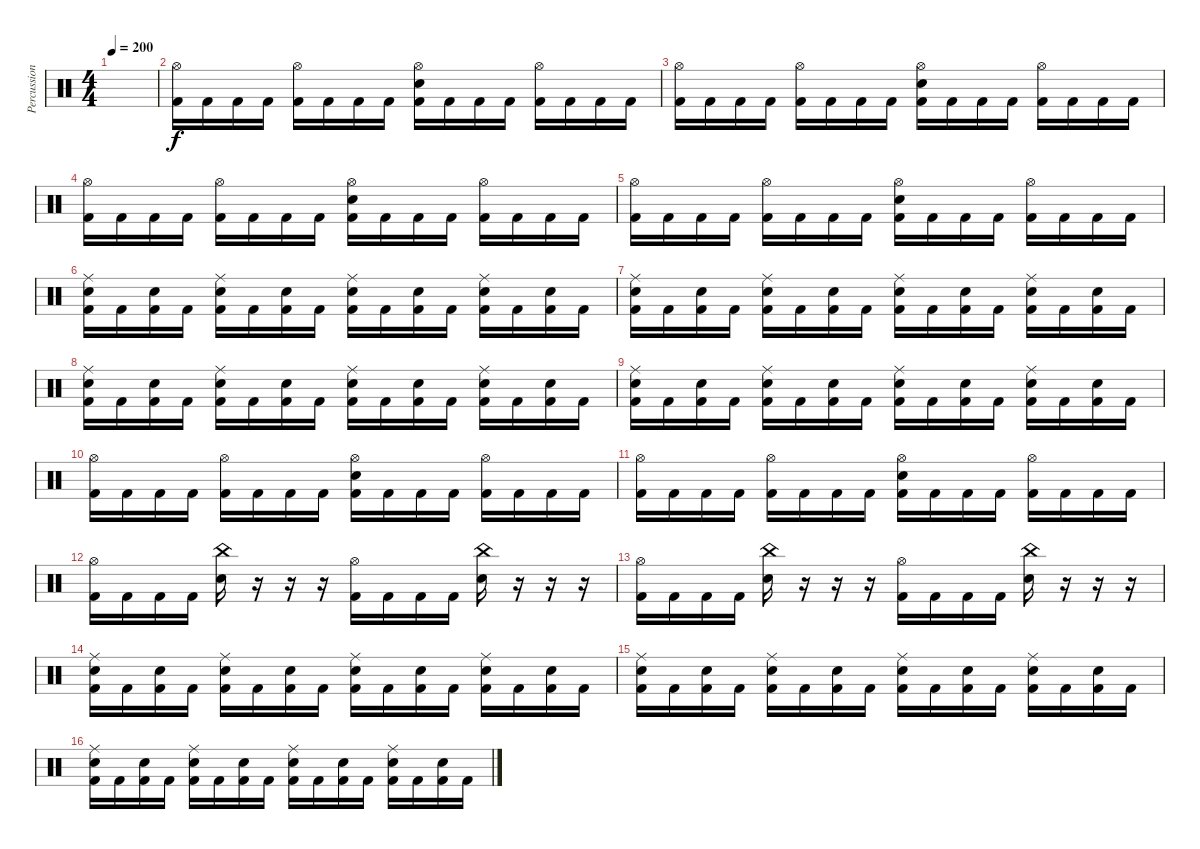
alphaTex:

\track ("Percussions" "Percussion") {instrument percussion}
\staff {score}
\articulation defaults
\ts (4 4)
\tempo 200
\clef neutral
\ks c
|
("Hi-Hat (open)" "Kick (hit) 2").16 "Kick (hit) 2".16 "Kick (hit) 2".16 "Kick (hit) 2".16 ("Hi-Hat (open)" "Kick (hit) 2").16 "Kick (hit) 2".16 "Kick (hit) 2".16 "Kick (hit) 2".16 ("Hi-Hat (open)" "Snare (hit) 2" "Kick (hit) 2").16 "Kick (hit) 2".16 "Kick (hit) 2".16 "Kick (hit) 2".16 ("Hi-Hat (open)" "Kick (hit) 2").16 "Kick (hit) 2".16 "Kick (hit) 2".16 "Kick (hit) 2".16 |
("Hi-Hat (open)" "Kick (hit) 2").16 "Kick (hit) 2".16 "Kick (hit) 2".16 "Kick (hit) 2".16 ("Hi-Hat (open)" "Kick (hit) 2").16 "Kick (hit) 2".16 "Kick (hit) 2".16 "Kick (hit) 2".16 ("Hi-Hat (open)" "Snare (hit) 2" "Kick (hit) 2").16 "Kick (hit) 2".16 "Kick (hit) 2".16 "Kick (hit) 2".16 ("Hi-Hat (open)" "Kick (hit) 2").16 "Kick (hit) 2".16 "Kick (hit) 2".16 "Kick (hit) 2".16 |
("Hi-Hat (open)" "Kick (hit) 2").16 "Kick (hit) 2".16 "Kick (hit) 2".16 "Kick (hit) 2".16 ("Hi-Hat (open)" "Kick (hit) 2").16 "Kick (hit) 2".16 "Kick (hit) 2".16 "Kick (hit) 2".16 ("Hi-Hat (open)" "Snare (hit) 2" "Kick (hit) 2").16 "Kick (hit) 2".16 "Kick (hit) 2".16 "Kick (hit) 2".16 ("Hi-Hat (open)" "Kick (hit) 2").16 "Kick (hit) 2".16 "Kick (hit) 2".16 "Kick (hit) 2".16 |
("Hi-Hat (open)" "Kick (hit) 2").16 "Kick (hit) 2".16 "Kick (hit) 2".16 "Kick (hit) 2".16 ("Hi-Hat (open)" "Kick (hit) 2").16 "Kick (hit) 2".16 "Kick (hit) 2".16 "Kick (hit) 2".16 ("Hi-Hat (open)" "Snare (hit) 2" "Kick (hit) 2").16 "Kick (hit) 2".16 "Kick (hit) 2".16 "Kick (hit) 2".16 ("Hi-Hat (open)" "Kick (hit) 2").16 "Kick (hit) 2".16 "Kick (hit) 2".16 "Kick (hit) 2".16 |
("Ride (middle)" "Snare (hit) 2" "Kick (hit) 2").16 "Kick (hit) 2".16 ("Snare (hit) 2" "Kick (hit) 2").16 "Kick (hit) 2".16 ("Ride (middle)" "Snare (hit) 2" "Kick (hit) 2").16 "Kick (hit) 2".16 ("Snare (hit) 2" "Kick (hit) 2").16 "Kick (hit) 2".16 ("Ride (middle)" "Snare (hit) 2" "Kick (hit) 2").16 "Kick (hit) 2".16 ("Snare (hit) 2" "Kick (hit) 2").16 "Kick (hit) 2".16 ("Ride (middle)" "Snare (hit) 2" "Kick (hit) 2").16 "Kick (hit) 2".16 ("Snare (hit) 2" "Kick (hit) 2").16 "Kick (hit) 2".16 |
("Ride (middle)" "Snare (hit) 2" "Kick (hit) 2").16 "Kick (hit) 2".16 ("Snare (hit) 2" "Kick (hit) 2").16 "Kick (hit) 2".16 ("Ride (middle)" "Snare (hit) 2" "Kick (hit) 2").16 "Kick (hit) 2".16 ("Snare (hit) 2" "Kick (hit) 2").16 "Kick (hit) 2".16 ("Ride (middle)" "Snare (hit) 2" "Kick (hit) 2").16 "Kick (hit) 2".16 ("Snare (hit) 2" "Kick (hit) 2").16 "Kick (hit) 2".16 ("Ride (middle)" "Snare (hit) 2" "Kick (hit) 2").16 "Kick (hit) 2".16 ("Snare (hit) 2" "Kick (hit) 2").16 "Kick (hit) 2".16 |
("Ride (middle)" "Snare (hit) 2" "Kick (hit) 2").16 "Kick (hit) 2".16 ("Snare (hit) 2" "Kick (hit) 2").16 "Kick (hit) 2".16 ("Ride (middle)" "Snare (hit) 2" "Kick (hit) 2").16 "Kick (hit) 2".16 ("Snare (hit) 2" "Kick (hit) 2").16 "Kick (hit) 2".16 ("Ride (middle)" "Snare (hit) 2" "Kick (hit) 2").16 "Kick (hit) 2".16 ("Snare (hit) 2" "Kick (hit) 2").16 "Kick (hit) 2".16 ("Ride (middle)" "Snare (hit) 2" "Kick (hit) 2").16 "Kick (hit) 2".16 ("Snare (hit) 2" "Kick (hit) 2").16 "Kick (hit) 2".16 |
("Ride (middle)" "Snare (hit) 2" "Kick (hit) 2").16 "Kick (hit) 2".16 ("Snare (hit) 2" "Kick (hit) 2").16 "Kick (hit) 2".16 ("Ride (middle)" "Snare (hit) 2" "Kick (hit) 2").16 "Kick (hit) 2".16 ("Snare (hit) 2" "Kick (hit) 2").16 "Kick (hit) 2".16 ("Ride (middle)" "Snare (hit) 2" "Kick (hit) 2").16 "Kick (hit) 2".16 ("Snare (hit) 2" "Kick (hit) 2").16 "Kick (hit) 2".16 ("Ride (middle)" "Snare (hit) 2" "Kick (hit) 2").16 "Kick (hit) 2".16 ("Snare (hit) 2" "Kick (hit) 2").16 "Kick (hit) 2".16 |
("Hi-Hat (open)" "Kick (hit) 2").16 "Kick (hit) 2".16 "Kick (hit) 2".16 "Kick (hit) 2".16 ("Hi-Hat (open)" "Kick (hit) 2").16 "Kick (hit) 2".16 "Kick (hit) 2".16 "Kick (hit) 2".16 ("Hi-Hat (open)" "Snare (hit) 2" "Kick (hit) 2").16 "Kick (hit) 2".16 "Kick (hit) 2".16 "Kick (hit) 2".16 ("Hi-Hat (open)" "Kick (hit) 2").16 "Kick (hit) 2".16 "Kick (hit) 2".16 "Kick (hit) 2".16 |
("Hi-Hat (open)" "Kick (hit) 2").16 "Kick (hit) 2".16 "Kick (hit) 2".16 "Kick (hit) 2".16 ("Hi-Hat (open)" "Kick (hit) 2").16 "Kick (hit) 2".16 "Kick (hit) 2".16 "Kick (hit) 2".16 ("Hi-Hat (open)" "Snare (hit) 2" "Kick (hit) 2").16 "Kick (hit) 2".16 "Kick (hit) 2".16 "Kick (hit) 2".16 ("Hi-Hat (open)" "Kick (hit) 2").16 "Kick (hit) 2".16 "Kick (hit) 2".16 "Kick (hit) 2".16 |
("Hi-Hat (open)" "Kick (hit) 2").16 "Kick (hit) 2".16 "Kick (hit) 2".16 "Kick (hit) 2".16 ("China (hit)" "Snare (hit) 2").16 r.16 r.16 r.16 ("Hi-Hat (open)" "Kick (hit) 2").16 "Kick (hit) 2".16 "Kick (hit) 2".16 "Kick (hit) 2".16 ("China (hit)" "Snare (hit) 2").16 r.16 r.16 r.16 |
("Hi-Hat (open)" "Kick (hit) 2").16 "Kick (hit) 2".16 "Kick (hit) 2".16 "Kick (hit) 2".16 ("China (hit)" "Snare (hit) 2").16 r.16 r.16 r.16 ("Hi-Hat (open)" "Kick (hit) 2").16 "Kick (hit) 2".16 "Kick (hit) 2".16 "Kick (hit) 2".16 ("China (hit)" "Snare (hit) 2").16 r.16 r.16 r.16 |
("Ride (middle)" "Snare (hit) 2" "Kick (hit) 2").16 "Kick (hit) 2".16 ("Snare (hit) 2" "Kick (hit) 2").16 "Kick (hit) 2".16 ("Ride (middle)" "Snare (hit) 2" "Kick (hit) 2").16 "Kick (hit) 2".16 ("Snare (hit) 2" "Kick (hit) 2").16 "Kick (hit) 2".16 ("Ride (middle)" "Snare (hit) 2" "Kick (hit) 2").16 "Kick (hit) 2".16 ("Snare (hit) 2" "Kick (hit) 2").16 "Kick (hit) 2".16 ("Ride (middle)" "Snare (hit) 2" "Kick (hit) 2").16 "Kick (hit) 2".16 ("Snare (hit) 2" "Kick (hit) 2").16 "Kick (hit) 2".16 |
("Ride (middle)" "Snare (hit) 2" "Kick (hit) 2").16 "Kick (hit) 2".16 ("Snare (hit) 2" "Kick (hit) 2").16 "Kick (hit) 2".16 ("Ride (middle)" "Snare (hit) 2" "Kick (hit) 2").16 "Kick (hit) 2".16 ("Snare (hit) 2" "Kick (hit) 2").16 "Kick (hit) 2".16 ("Ride (middle)" "Snare (hit) 2" "Kick (hit) 2").16 "Kick (hit) 2".16 ("Snare (hit) 2" "Kick (hit) 2").16 "Kick (hit) 2".16 ("Ride (middle)" "Snare (hit) 2" "Kick (hit) 2").16 "Kick (hit) 2".16 ("Snare (hit) 2" "Kick (hit) 2").16 "Kick (hit) 2".16 |
("Ride (middle)" "Snare (hit) 2" "Kick (hit) 2").16 "Kick (hit) 2".16 ("Snare (hit) 2" "Kick (hit) 2").16 "Kick (hit) 2".16 ("Ride (middle)" "Snare (hit) 2" "Kick (hit) 2").16 "Kick (hit) 2".16 ("Snare (hit) 2" "Kick (hit) 2").16 "Kick (hit) 2".16 ("Ride (middle)" "Snare (hit) 2" "Kick (hit) 2").16 "Kick (hit) 2".16 ("Snare (hit) 2" "Kick (hit) 2").16 "Kick (hit) 2".16 ("Ride (middle)" "Snare (hit) 2" "Kick (hit) 2").16 "Kick (hit) 2".16 ("Snare (hit) 2" "Kick (hit) 2").16 "Kick (hit) 2".16
